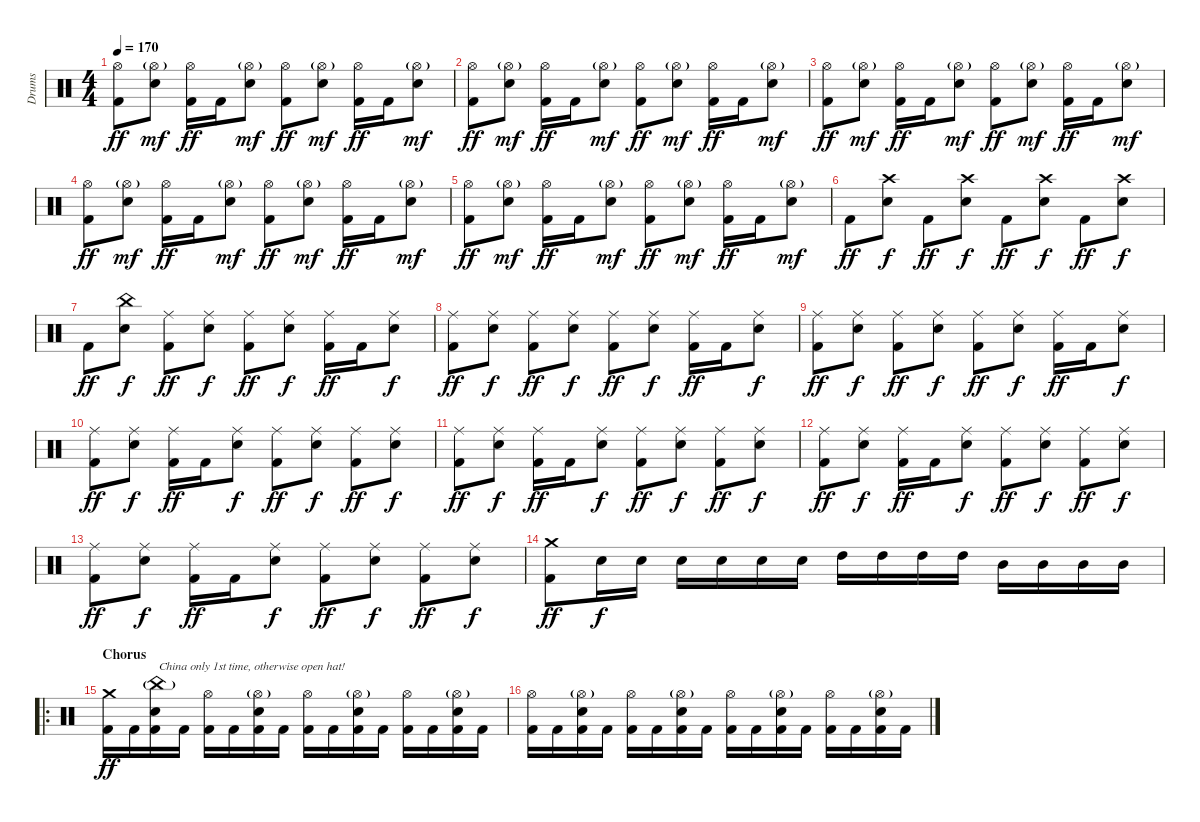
\track ("Drums" "Drums") {instrument percussion}
\staff {score}
\articulation defaults
\ts (4 4)
\tempo 170
\clef neutral
\ks c
("Hi-Hat (open)" "Kick (hit) 2").8{dy ff} ("Hi-Hat (open)"{g} "Electric Snare (hit)").8{dy mf} ("Hi-Hat (open)" "Kick (hit) 2").16{dy ff} "Kick (hit) 2".16 ("Hi-Hat (open)"{g} "Electric Snare (hit)").8{dy mf} ("Hi-Hat (open)" "Kick (hit) 2").8{dy ff} ("Hi-Hat (open)"{g} "Electric Snare (hit)").8{dy mf} ("Hi-Hat (open)" "Kick (hit) 2").16{dy ff} "Kick (hit) 2".16 ("Hi-Hat (open)"{g} "Electric Snare (hit)").8{dy mf} |
("Hi-Hat (open)" "Kick (hit) 2").8{dy ff} ("Hi-Hat (open)"{g} "Electric Snare (hit)").8{dy mf} ("Hi-Hat (open)" "Kick (hit) 2").16{dy ff} "Kick (hit) 2".16 ("Hi-Hat (open)"{g} "Electric Snare (hit)").8{dy mf} ("Hi-Hat (open)" "Kick (hit) 2").8{dy ff} ("Hi-Hat (open)"{g} "Electric Snare (hit)").8{dy mf} ("Hi-Hat (open)" "Kick (hit) 2").16{dy ff} "Kick (hit) 2".16 ("Hi-Hat (open)"{g} "Electric Snare (hit)").8{dy mf} |
("Hi-Hat (open)" "Kick (hit) 2").8{dy ff} ("Hi-Hat (open)"{g} "Electric Snare (hit)").8{dy mf} ("Hi-Hat (open)" "Kick (hit) 2").16{dy ff} "Kick (hit) 2".16 ("Hi-Hat (open)"{g} "Electric Snare (hit)").8{dy mf} ("Hi-Hat (open)" "Kick (hit) 2").8{dy ff} ("Hi-Hat (open)"{g} "Electric Snare (hit)").8{dy mf} ("Hi-Hat (open)" "Kick (hit) 2").16{dy ff} "Kick (hit) 2".16 ("Hi-Hat (open)"{g} "Electric Snare (hit)").8{dy mf} |
("Hi-Hat (open)" "Kick (hit) 2").8{dy ff} ("Hi-Hat (open)"{g} "Electric Snare (hit)").8{dy mf} ("Hi-Hat (open)" "Kick (hit) 2").16{dy ff} "Kick (hit) 2".16 ("Hi-Hat (open)"{g} "Electric Snare (hit)").8{dy mf} ("Hi-Hat (open)" "Kick (hit) 2").8{dy ff} ("Hi-Hat (open)"{g} "Electric Snare (hit)").8{dy mf} ("Hi-Hat (open)" "Kick (hit) 2").16{dy ff} "Kick (hit) 2".16 ("Hi-Hat (open)"{g} "Electric Snare (hit)").8{dy mf} |
("Hi-Hat (open)" "Kick (hit) 2").8{dy ff} ("Hi-Hat (open)"{g} "Electric Snare (hit)").8{dy mf} ("Hi-Hat (open)" "Kick (hit) 2").16{dy ff} "Kick (hit) 2".16 ("Hi-Hat (open)"{g} "Electric Snare (hit)").8{dy mf} ("Hi-Hat (open)" "Kick (hit) 2").8{dy ff} ("Hi-Hat (open)"{g} "Electric Snare (hit)").8{dy mf} ("Hi-Hat (open)" "Kick (hit) 2").16{dy ff} "Kick (hit) 2".16 ("Hi-Hat (open)"{g} "Electric Snare (hit)").8{dy mf} |
"Kick (hit) 2".8{dy ff} ("Crash high (hit)" "Electric Snare (hit)").8{dy f} "Kick (hit) 2".8{dy ff} ("Crash high (hit)" "Electric Snare (hit)").8{dy f} "Kick (hit) 2".8{dy ff} ("Crash high (hit)" "Electric Snare (hit)").8{dy f} "Kick (hit) 2".8{dy ff} ("Crash high (hit)" "Electric Snare (hit)").8{dy f} |
"Kick (hit) 2".8{dy ff} ("China (hit)" "Electric Snare (hit)").8{dy f} ("Ride (middle)" "Kick (hit) 2").8{dy ff} ("Ride (middle)" "Electric Snare (hit)").8{dy f} ("Ride (middle)" "Kick (hit) 2").8{dy ff} ("Ride (middle)" "Electric Snare (hit)").8{dy f} ("Ride (middle)" "Kick (hit) 2").16{dy ff} "Kick (hit) 2".16 ("Ride (middle)" "Electric Snare (hit)").8{dy f} |
("Ride (middle)" "Kick (hit) 2").8{dy ff} ("Ride (middle)" "Electric Snare (hit)").8{dy f} ("Ride (middle)" "Kick (hit) 2").8{dy ff} ("Ride (middle)" "Electric Snare (hit)").8{dy f} ("Ride (middle)" "Kick (hit) 2").8{dy ff} ("Ride (middle)" "Electric Snare (hit)").8{dy f} ("Ride (middle)" "Kick (hit) 2").16{dy ff} "Kick (hit) 2".16 ("Ride (middle)" "Electric Snare (hit)").8{dy f} |
("Ride (middle)" "Kick (hit) 2").8{dy ff} ("Ride (middle)" "Electric Snare (hit)").8{dy f} ("Ride (middle)" "Kick (hit) 2").8{dy ff} ("Ride (middle)" "Electric Snare (hit)").8{dy f} ("Ride (middle)" "Kick (hit) 2").8{dy ff} ("Ride (middle)" "Electric Snare (hit)").8{dy f} ("Ride (middle)" "Kick (hit) 2").16{dy ff} "Kick (hit) 2".16 ("Ride (middle)" "Electric Snare (hit)").8{dy f} |
("Ride (middle)" "Kick (hit) 2").8{dy ff} ("Ride (middle)" "Electric Snare (hit)").8{dy f} ("Ride (middle)" "Kick (hit) 2").16{dy ff} "Kick (hit) 2".16 ("Ride (middle)" "Electric Snare (hit)").8{dy f} ("Ride (middle)" "Kick (hit) 2").8{dy ff} ("Ride (middle)" "Electric Snare (hit)").8{dy f} ("Ride (middle)" "Kick (hit) 2").8{dy ff} ("Ride (middle)" "Electric Snare (hit)").8{dy f} |
("Ride (middle)" "Kick (hit) 2").8{dy ff} ("Ride (middle)" "Electric Snare (hit)").8{dy f} ("Ride (middle)" "Kick (hit) 2").16{dy ff} "Kick (hit) 2".16 ("Ride (middle)" "Electric Snare (hit)").8{dy f} ("Ride (middle)" "Kick (hit) 2").8{dy ff} ("Ride (middle)" "Electric Snare (hit)").8{dy f} ("Ride (middle)" "Kick (hit) 2").8{dy ff} ("Ride (middle)" "Electric Snare (hit)").8{dy f} |
("Ride (middle)" "Kick (hit) 2").8{dy ff} ("Ride (middle)" "Electric Snare (hit)").8{dy f} ("Ride (middle)" "Kick (hit) 2").16{dy ff} "Kick (hit) 2".16 ("Ride (middle)" "Electric Snare (hit)").8{dy f} ("Ride (middle)" "Kick (hit) 2").8{dy ff} ("Ride (middle)" "Electric Snare (hit)").8{dy f} ("Ride (middle)" "Kick (hit) 2").8{dy ff} ("Ride (middle)" "Electric Snare (hit)").8{dy f} |
("Ride (middle)" "Kick (hit) 2").8{dy ff} ("Ride (middle)" "Electric Snare (hit)").8{dy f} ("Ride (middle)" "Kick (hit) 2").16{dy ff} "Kick (hit) 2".16 ("Ride (middle)" "Electric Snare (hit)").8{dy f} ("Ride (middle)" "Kick (hit) 2").8{dy ff} ("Ride (middle)" "Electric Snare (hit)").8{dy f} ("Ride (middle)" "Kick (hit) 2").8{dy ff} ("Ride (middle)" "Electric Snare (hit)").8{dy f} |
("Crash medium (hit)" "Kick (hit) 2").8{dy ff} "Electric Snare (hit)".16{dy f} "Electric Snare (hit)".16 "Electric Snare (hit)".16 "Electric Snare (hit)".16 "Electric Snare (hit)".16 "Electric Snare (hit)".16 "High Tom (hit)".16 "High Tom (hit)".16 "High Tom (hit)".16 "High Tom (hit)".16 "Mid Tom (hit)".16 "Mid Tom (hit)".16 "Mid Tom (hit)".16 "Mid Tom (hit)".16 |
\ro
\section ("" "Chorus")
("Crash medium (hit)" "Kick (hit) 2").16{dy ff} "Kick (hit) 2".16 ("China (hit)"{g} "Electric Snare (hit)" "Kick (hit) 2").16{txt "China only 1st time, otherwise open hat!"} "Kick (hit) 2".16 ("Hi-Hat (open)" "Kick (hit) 2").16 "Kick (hit) 2".16 ("Hi-Hat (open)"{g} "Electric Snare (hit)" "Kick (hit) 2").16 "Kick (hit) 2".16 ("Hi-Hat (open)" "Kick (hit) 2").16 "Kick (hit) 2".16 ("Hi-Hat (open)"{g} "Electric Snare (hit)" "Kick (hit) 2").16 "Kick (hit) 2".16 ("Hi-Hat (open)" "Kick (hit) 2").16 "Kick (hit) 2".16 ("Hi-Hat (open)"{g} "Electric Snare (hit)" "Kick (hit) 2").16 "Kick (hit) 2".16 |
("Hi-Hat (open)" "Kick (hit) 2").16 "Kick (hit) 2".16 ("Hi-Hat (open)"{g} "Electric Snare (hit)" "Kick (hit) 2").16 "Kick (hit) 2".16 ("Hi-Hat (open)" "Kick (hit) 2").16 "Kick (hit) 2".16 ("Hi-Hat (open)"{g} "Electric Snare (hit)" "Kick (hit) 2").16 "Kick (hit) 2".16 ("Hi-Hat (open)" "Kick (hit) 2").16 "Kick (hit) 2".16 ("Hi-Hat (open)"{g} "Electric Snare (hit)" "Kick (hit) 2").16 "Kick (hit) 2".16 ("Hi-Hat (open)" "Kick (hit) 2").16 "Kick (hit) 2".16 ("Hi-Hat (open)"{g} "Electric Snare (hit)" "Kick (hit) 2").16 "Kick (hit) 2".16
